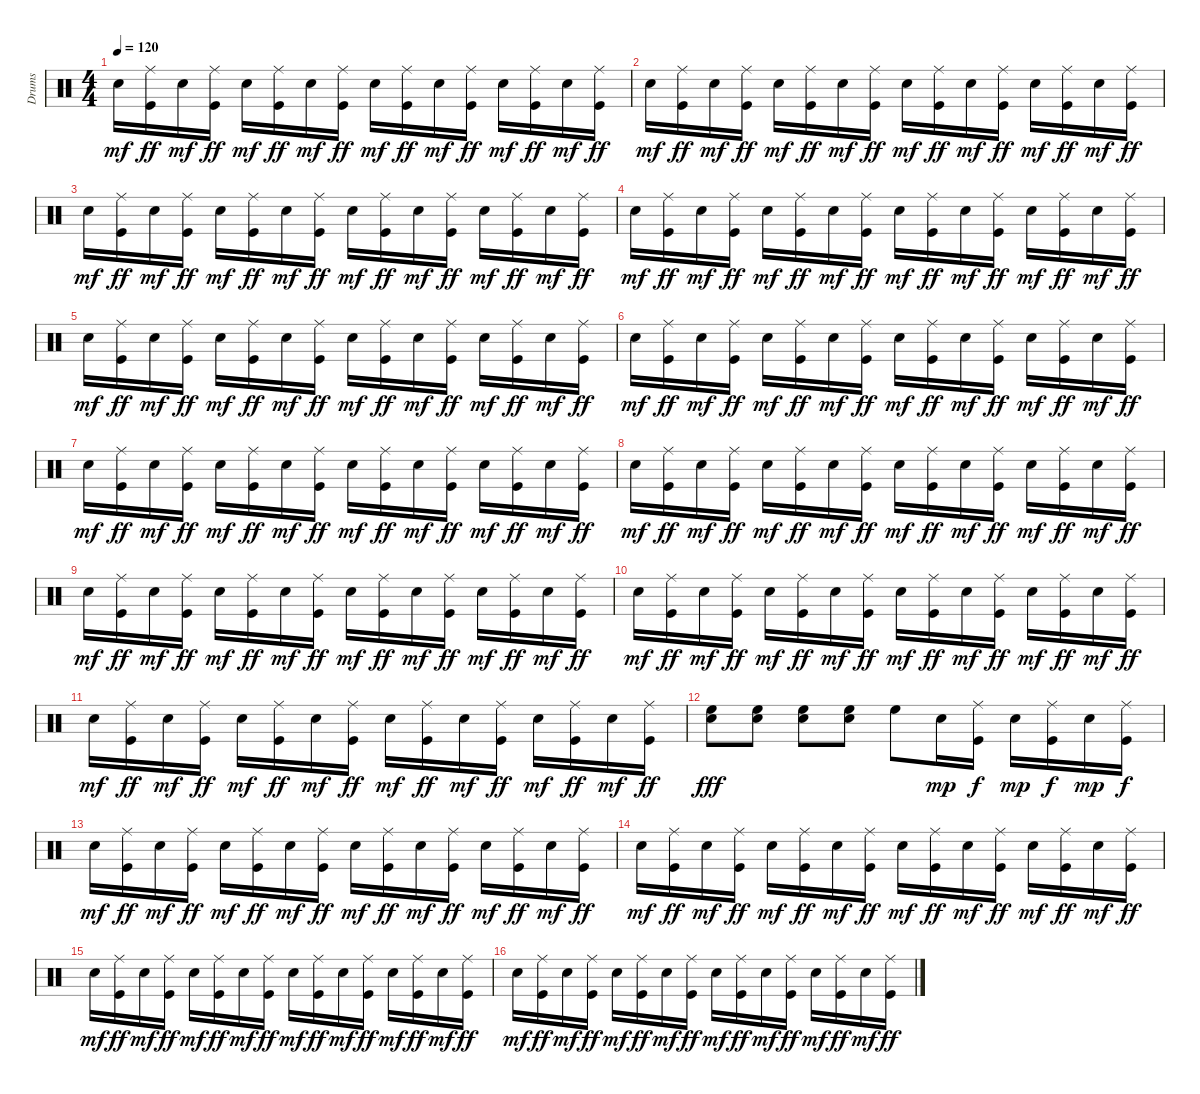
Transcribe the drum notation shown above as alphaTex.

\track ("Drums" "Drums") {instrument percussion}
\staff {score}
\articulation defaults
\ts (4 4)
\tempo 120
\clef neutral
\ks c "Electric Snare (hit)".16{dy mf}
("Ride (middle)" "Kick (hit)").16{dy ff} "Electric Snare (hit)".16{dy mf} ("Ride (middle)" "Kick (hit)").16{dy ff} "Electric Snare (hit)".16{dy mf} ("Ride (middle)" "Kick (hit)").16{dy ff} "Electric Snare (hit)".16{dy mf} ("Ride (middle)" "Kick (hit)").16{dy ff} "Electric Snare (hit)".16{dy mf} ("Ride (middle)" "Kick (hit)").16{dy ff} "Electric Snare (hit)".16{dy mf} ("Ride (middle)" "Kick (hit)").16{dy ff} "Electric Snare (hit)".16{dy mf} ("Ride (middle)" "Kick (hit)").16{dy ff} "Electric Snare (hit)".16{dy mf} ("Ride (middle)" "Kick (hit)").16{dy ff} |
"Electric Snare (hit)".16{dy mf} ("Ride (middle)" "Kick (hit)").16{dy ff} "Electric Snare (hit)".16{dy mf} ("Ride (middle)" "Kick (hit)").16{dy ff} "Electric Snare (hit)".16{dy mf} ("Ride (middle)" "Kick (hit)").16{dy ff} "Electric Snare (hit)".16{dy mf} ("Ride (middle)" "Kick (hit)").16{dy ff} "Electric Snare (hit)".16{dy mf} ("Ride (middle)" "Kick (hit)").16{dy ff} "Electric Snare (hit)".16{dy mf} ("Ride (middle)" "Kick (hit)").16{dy ff} "Electric Snare (hit)".16{dy mf} ("Ride (middle)" "Kick (hit)").16{dy ff} "Electric Snare (hit)".16{dy mf} ("Ride (middle)" "Kick (hit)").16{dy ff} |
"Electric Snare (hit)".16{dy mf} ("Ride (middle)" "Kick (hit)").16{dy ff} "Electric Snare (hit)".16{dy mf} ("Ride (middle)" "Kick (hit)").16{dy ff} "Electric Snare (hit)".16{dy mf} ("Ride (middle)" "Kick (hit)").16{dy ff} "Electric Snare (hit)".16{dy mf} ("Ride (middle)" "Kick (hit)").16{dy ff} "Electric Snare (hit)".16{dy mf} ("Ride (middle)" "Kick (hit)").16{dy ff} "Electric Snare (hit)".16{dy mf} ("Ride (middle)" "Kick (hit)").16{dy ff} "Electric Snare (hit)".16{dy mf} ("Ride (middle)" "Kick (hit)").16{dy ff} "Electric Snare (hit)".16{dy mf} ("Ride (middle)" "Kick (hit)").16{dy ff} |
"Electric Snare (hit)".16{dy mf} ("Ride (middle)" "Kick (hit)").16{dy ff} "Electric Snare (hit)".16{dy mf} ("Ride (middle)" "Kick (hit)").16{dy ff} "Electric Snare (hit)".16{dy mf} ("Ride (middle)" "Kick (hit)").16{dy ff} "Electric Snare (hit)".16{dy mf} ("Ride (middle)" "Kick (hit)").16{dy ff} "Electric Snare (hit)".16{dy mf} ("Ride (middle)" "Kick (hit)").16{dy ff} "Electric Snare (hit)".16{dy mf} ("Ride (middle)" "Kick (hit)").16{dy ff} "Electric Snare (hit)".16{dy mf} ("Ride (middle)" "Kick (hit)").16{dy ff} "Electric Snare (hit)".16{dy mf} ("Ride (middle)" "Kick (hit)").16{dy ff} |
"Electric Snare (hit)".16{dy mf} ("Ride (middle)" "Kick (hit)").16{dy ff} "Electric Snare (hit)".16{dy mf} ("Ride (middle)" "Kick (hit)").16{dy ff} "Electric Snare (hit)".16{dy mf} ("Ride (middle)" "Kick (hit)").16{dy ff} "Electric Snare (hit)".16{dy mf} ("Ride (middle)" "Kick (hit)").16{dy ff} "Electric Snare (hit)".16{dy mf} ("Ride (middle)" "Kick (hit)").16{dy ff} "Electric Snare (hit)".16{dy mf} ("Ride (middle)" "Kick (hit)").16{dy ff} "Electric Snare (hit)".16{dy mf} ("Ride (middle)" "Kick (hit)").16{dy ff} "Electric Snare (hit)".16{dy mf} ("Ride (middle)" "Kick (hit)").16{dy ff} |
"Electric Snare (hit)".16{dy mf} ("Ride (middle)" "Kick (hit)").16{dy ff} "Electric Snare (hit)".16{dy mf} ("Ride (middle)" "Kick (hit)").16{dy ff} "Electric Snare (hit)".16{dy mf} ("Ride (middle)" "Kick (hit)").16{dy ff} "Electric Snare (hit)".16{dy mf} ("Ride (middle)" "Kick (hit)").16{dy ff} "Electric Snare (hit)".16{dy mf} ("Ride (middle)" "Kick (hit)").16{dy ff} "Electric Snare (hit)".16{dy mf} ("Ride (middle)" "Kick (hit)").16{dy ff} "Electric Snare (hit)".16{dy mf} ("Ride (middle)" "Kick (hit)").16{dy ff} "Electric Snare (hit)".16{dy mf} ("Ride (middle)" "Kick (hit)").16{dy ff} |
"Electric Snare (hit)".16{dy mf} ("Ride (middle)" "Kick (hit)").16{dy ff} "Electric Snare (hit)".16{dy mf} ("Ride (middle)" "Kick (hit)").16{dy ff} "Electric Snare (hit)".16{dy mf} ("Ride (middle)" "Kick (hit)").16{dy ff} "Electric Snare (hit)".16{dy mf} ("Ride (middle)" "Kick (hit)").16{dy ff} "Electric Snare (hit)".16{dy mf} ("Ride (middle)" "Kick (hit)").16{dy ff} "Electric Snare (hit)".16{dy mf} ("Ride (middle)" "Kick (hit)").16{dy ff} "Electric Snare (hit)".16{dy mf} ("Ride (middle)" "Kick (hit)").16{dy ff} "Electric Snare (hit)".16{dy mf} ("Ride (middle)" "Kick (hit)").16{dy ff} |
"Electric Snare (hit)".16{dy mf} ("Ride (middle)" "Kick (hit)").16{dy ff} "Electric Snare (hit)".16{dy mf} ("Ride (middle)" "Kick (hit)").16{dy ff} "Electric Snare (hit)".16{dy mf} ("Ride (middle)" "Kick (hit)").16{dy ff} "Electric Snare (hit)".16{dy mf} ("Ride (middle)" "Kick (hit)").16{dy ff} "Electric Snare (hit)".16{dy mf} ("Ride (middle)" "Kick (hit)").16{dy ff} "Electric Snare (hit)".16{dy mf} ("Ride (middle)" "Kick (hit)").16{dy ff} "Electric Snare (hit)".16{dy mf} ("Ride (middle)" "Kick (hit)").16{dy ff} "Electric Snare (hit)".16{dy mf} ("Ride (middle)" "Kick (hit)").16{dy ff} |
"Electric Snare (hit)".16{dy mf} ("Ride (middle)" "Kick (hit)").16{dy ff} "Electric Snare (hit)".16{dy mf} ("Ride (middle)" "Kick (hit)").16{dy ff} "Electric Snare (hit)".16{dy mf} ("Ride (middle)" "Kick (hit)").16{dy ff} "Electric Snare (hit)".16{dy mf} ("Ride (middle)" "Kick (hit)").16{dy ff} "Electric Snare (hit)".16{dy mf} ("Ride (middle)" "Kick (hit)").16{dy ff} "Electric Snare (hit)".16{dy mf} ("Ride (middle)" "Kick (hit)").16{dy ff} "Electric Snare (hit)".16{dy mf} ("Ride (middle)" "Kick (hit)").16{dy ff} "Electric Snare (hit)".16{dy mf} ("Ride (middle)" "Kick (hit)").16{dy ff} |
"Electric Snare (hit)".16{dy mf} ("Ride (middle)" "Kick (hit)").16{dy ff} "Electric Snare (hit)".16{dy mf} ("Ride (middle)" "Kick (hit)").16{dy ff} "Electric Snare (hit)".16{dy mf} ("Ride (middle)" "Kick (hit)").16{dy ff} "Electric Snare (hit)".16{dy mf} ("Ride (middle)" "Kick (hit)").16{dy ff} "Electric Snare (hit)".16{dy mf} ("Ride (middle)" "Kick (hit)").16{dy ff} "Electric Snare (hit)".16{dy mf} ("Ride (middle)" "Kick (hit)").16{dy ff} "Electric Snare (hit)".16{dy mf} ("Ride (middle)" "Kick (hit)").16{dy ff} "Electric Snare (hit)".16{dy mf} ("Ride (middle)" "Kick (hit)").16{dy ff} |
"Electric Snare (hit)".16{dy mf} ("Ride (middle)" "Kick (hit)").16{dy ff} "Electric Snare (hit)".16{dy mf} ("Ride (middle)" "Kick (hit)").16{dy ff} "Electric Snare (hit)".16{dy mf} ("Ride (middle)" "Kick (hit)").16{dy ff} "Electric Snare (hit)".16{dy mf} ("Ride (middle)" "Kick (hit)").16{dy ff} "Electric Snare (hit)".16{dy mf} ("Ride (middle)" "Kick (hit)").16{dy ff} "Electric Snare (hit)".16{dy mf} ("Ride (middle)" "Kick (hit)").16{dy ff} "Electric Snare (hit)".16{dy mf} ("Ride (middle)" "Kick (hit)").16{dy ff} "Electric Snare (hit)".16{dy mf} ("Ride (middle)" "Kick (hit)").16{dy ff} |
("Electric Snare (hit)" "High Floor Tom (hit)").8{dy fff} ("Electric Snare (hit)" "High Floor Tom (hit)").8 ("Electric Snare (hit)" "High Floor Tom (hit)").8 ("Electric Snare (hit)" "High Floor Tom (hit)").8 "High Floor Tom (hit)".8 "Electric Snare (hit)".16{dy mp} ("Ride (middle)" "Kick (hit)").16{dy f} "Electric Snare (hit)".16{dy mp} ("Ride (middle)" "Kick (hit)").16{dy f} "Electric Snare (hit)".16{dy mp} ("Ride (middle)" "Kick (hit)").16{dy f} |
"Electric Snare (hit)".16{dy mf} ("Ride (middle)" "Kick (hit)").16{dy ff} "Electric Snare (hit)".16{dy mf} ("Ride (middle)" "Kick (hit)").16{dy ff} "Electric Snare (hit)".16{dy mf} ("Ride (middle)" "Kick (hit)").16{dy ff} "Electric Snare (hit)".16{dy mf} ("Ride (middle)" "Kick (hit)").16{dy ff} "Electric Snare (hit)".16{dy mf} ("Ride (middle)" "Kick (hit)").16{dy ff} "Electric Snare (hit)".16{dy mf} ("Ride (middle)" "Kick (hit)").16{dy ff} "Electric Snare (hit)".16{dy mf} ("Ride (middle)" "Kick (hit)").16{dy ff} "Electric Snare (hit)".16{dy mf} ("Ride (middle)" "Kick (hit)").16{dy ff} |
"Electric Snare (hit)".16{dy mf} ("Ride (middle)" "Kick (hit)").16{dy ff} "Electric Snare (hit)".16{dy mf} ("Ride (middle)" "Kick (hit)").16{dy ff} "Electric Snare (hit)".16{dy mf} ("Ride (middle)" "Kick (hit)").16{dy ff} "Electric Snare (hit)".16{dy mf} ("Ride (middle)" "Kick (hit)").16{dy ff} "Electric Snare (hit)".16{dy mf} ("Ride (middle)" "Kick (hit)").16{dy ff} "Electric Snare (hit)".16{dy mf} ("Ride (middle)" "Kick (hit)").16{dy ff} "Electric Snare (hit)".16{dy mf} ("Ride (middle)" "Kick (hit)").16{dy ff} "Electric Snare (hit)".16{dy mf} ("Ride (middle)" "Kick (hit)").16{dy ff} |
"Electric Snare (hit)".16{dy mf} ("Ride (middle)" "Kick (hit)").16{dy ff} "Electric Snare (hit)".16{dy mf} ("Ride (middle)" "Kick (hit)").16{dy ff} "Electric Snare (hit)".16{dy mf} ("Ride (middle)" "Kick (hit)").16{dy ff} "Electric Snare (hit)".16{dy mf} ("Ride (middle)" "Kick (hit)").16{dy ff} "Electric Snare (hit)".16{dy mf} ("Ride (middle)" "Kick (hit)").16{dy ff} "Electric Snare (hit)".16{dy mf} ("Ride (middle)" "Kick (hit)").16{dy ff} "Electric Snare (hit)".16{dy mf} ("Ride (middle)" "Kick (hit)").16{dy ff} "Electric Snare (hit)".16{dy mf} ("Ride (middle)" "Kick (hit)").16{dy ff} |
"Electric Snare (hit)".16{dy mf} ("Ride (middle)" "Kick (hit)").16{dy ff} "Electric Snare (hit)".16{dy mf} ("Ride (middle)" "Kick (hit)").16{dy ff} "Electric Snare (hit)".16{dy mf} ("Ride (middle)" "Kick (hit)").16{dy ff} "Electric Snare (hit)".16{dy mf} ("Ride (middle)" "Kick (hit)").16{dy ff} "Electric Snare (hit)".16{dy mf} ("Ride (middle)" "Kick (hit)").16{dy ff} "Electric Snare (hit)".16{dy mf} ("Ride (middle)" "Kick (hit)").16{dy ff} "Electric Snare (hit)".16{dy mf} ("Ride (middle)" "Kick (hit)").16{dy ff} "Electric Snare (hit)".16{dy mf} ("Ride (middle)" "Kick (hit)").16{dy ff}
